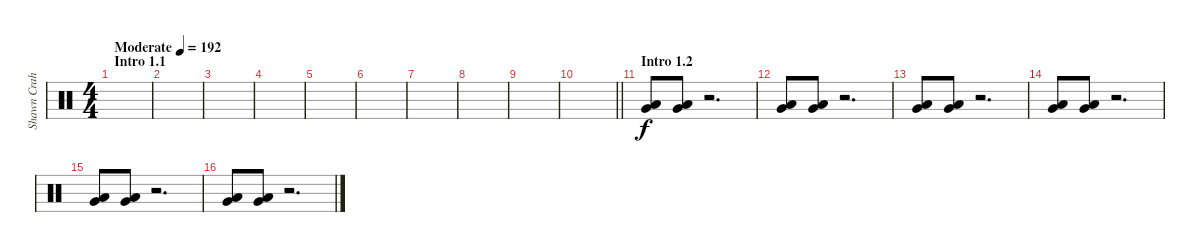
\track ("Shawn Crahan" "Shawn Crah") {instrument percussion}
\staff {score}
\articulation defaults
\ts (4 4)
\section ("" "Intro 1.1")
\tempo (192 "Moderate")
\clef neutral
\ks c
|
|
|
|
|
|
|
|
|
\barLineRight lightlight
|
\section ("" "Intro 1.2")
("Very Low Tom (hit)" "Low Floor Tom (hit)").8 ("Very Low Tom (hit)" "Low Floor Tom (hit)").8 r.2{d} |
("Very Low Tom (hit)" "Low Floor Tom (hit)").8 ("Very Low Tom (hit)" "Low Floor Tom (hit)").8 r.2{d} |
("Very Low Tom (hit)" "Low Floor Tom (hit)").8 ("Very Low Tom (hit)" "Low Floor Tom (hit)").8 r.2{d} |
("Very Low Tom (hit)" "Low Floor Tom (hit)").8 ("Very Low Tom (hit)" "Low Floor Tom (hit)").8 r.2{d} |
("Very Low Tom (hit)" "Low Floor Tom (hit)").8 ("Very Low Tom (hit)" "Low Floor Tom (hit)").8 r.2{d} |
("Very Low Tom (hit)" "Low Floor Tom (hit)").8 ("Very Low Tom (hit)" "Low Floor Tom (hit)").8 r.2{d}
